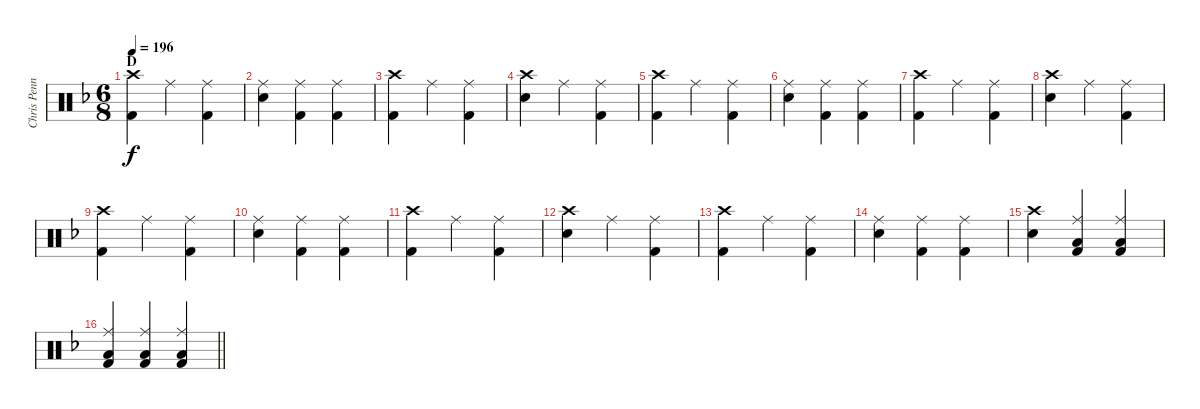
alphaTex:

\track ("Chris Pennie/Taylor Hawkins - Drum" "Chris Penn") {instrument percussion}
\staff {score}
\articulation defaults
\ts (6 8)
\section ("" "D")
\tempo 196
\clef neutral
\ks f
("Crash high (hit)" "Kick (hit) 2").4{dy f} "Ride (middle)".4 ("Ride (middle)" "Kick (hit) 2").4 |
("Ride (middle)" "Electric Snare (hit)").4 ("Ride (middle)" "Kick (hit) 2").4 ("Ride (middle)" "Kick (hit) 2").4 |
("Crash high (hit)" "Kick (hit) 2").4 "Ride (middle)".4 ("Ride (middle)" "Kick (hit) 2").4 |
("Crash high (hit)" "Electric Snare (hit)").4 "Ride (middle)".4 ("Ride (middle)" "Kick (hit) 2").4 |
("Crash high (hit)" "Kick (hit) 2").4 "Ride (middle)".4 ("Ride (middle)" "Kick (hit) 2").4 |
("Ride (middle)" "Electric Snare (hit)").4 ("Ride (middle)" "Kick (hit) 2").4 ("Ride (middle)" "Kick (hit) 2").4 |
("Crash high (hit)" "Kick (hit) 2").4 "Ride (middle)".4 ("Ride (middle)" "Kick (hit) 2").4 |
("Crash high (hit)" "Electric Snare (hit)").4 "Ride (middle)".4 ("Ride (middle)" "Kick (hit) 2").4 |
("Crash high (hit)" "Kick (hit) 2").4 "Ride (middle)".4 ("Ride (middle)" "Kick (hit) 2").4 |
("Ride (middle)" "Electric Snare (hit)").4 ("Ride (middle)" "Kick (hit) 2").4 ("Ride (middle)" "Kick (hit) 2").4 |
("Crash high (hit)" "Kick (hit) 2").4 "Ride (middle)".4 ("Ride (middle)" "Kick (hit) 2").4 |
("Crash high (hit)" "Electric Snare (hit)").4 "Ride (middle)".4 ("Ride (middle)" "Kick (hit) 2").4 |
("Crash high (hit)" "Kick (hit) 2").4 "Ride (middle)".4 ("Ride (middle)" "Kick (hit) 2").4 |
("Ride (middle)" "Electric Snare (hit)").4 ("Ride (middle)" "Kick (hit) 2").4 ("Ride (middle)" "Kick (hit) 2").4 |
("Crash high (hit)" "Electric Snare (hit)").4 ("Ride (middle)" "Low Floor Tom (hit)" "Kick (hit) 2").4 ("Ride (middle)" "Low Floor Tom (hit)" "Kick (hit) 2").4 |
\barLineRight lightlight
("Ride (middle)" "Low Floor Tom (hit)" "Kick (hit) 2").4 ("Ride (middle)" "Low Floor Tom (hit)" "Kick (hit) 2").4 ("Ride (middle)" "Low Floor Tom (hit)" "Kick (hit) 2").4
